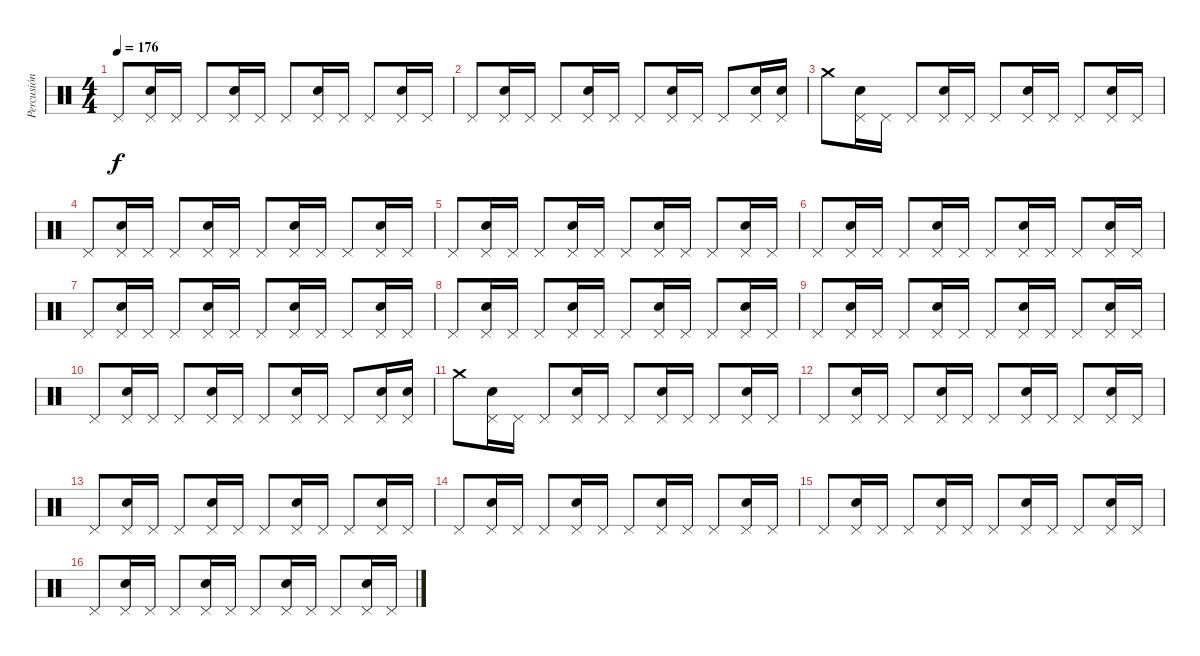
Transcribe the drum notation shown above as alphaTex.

\track ("Percusión" "Percusión") {instrument percussion}
\staff {score}
\articulation defaults
\ts (4 4)
\tempo 176
\clef neutral
\ks c "Pedal Hi-Hat (hit)".8{dy f}
("Pedal Hi-Hat (hit)" "Snare (hit) 2").16 "Pedal Hi-Hat (hit)".16 "Pedal Hi-Hat (hit)".8 ("Pedal Hi-Hat (hit)" "Snare (hit) 2").16 "Pedal Hi-Hat (hit)".16 "Pedal Hi-Hat (hit)".8 ("Pedal Hi-Hat (hit)" "Snare (hit) 2").16 "Pedal Hi-Hat (hit)".16 "Pedal Hi-Hat (hit)".8 ("Pedal Hi-Hat (hit)" "Snare (hit) 2").16 "Pedal Hi-Hat (hit)".16 |
"Pedal Hi-Hat (hit)".8 ("Pedal Hi-Hat (hit)" "Snare (hit) 2").16 "Pedal Hi-Hat (hit)".16 "Pedal Hi-Hat (hit)".8 ("Pedal Hi-Hat (hit)" "Snare (hit) 2").16 "Pedal Hi-Hat (hit)".16 "Pedal Hi-Hat (hit)".8 ("Pedal Hi-Hat (hit)" "Snare (hit) 2").16 "Pedal Hi-Hat (hit)".16 "Pedal Hi-Hat (hit)".8 ("Pedal Hi-Hat (hit)" "Snare (hit) 2").16 ("Pedal Hi-Hat (hit)" "Snare (hit) 2").16 |
"Crash medium (hit)".8 ("Pedal Hi-Hat (hit)" "Snare (hit) 2").16 "Pedal Hi-Hat (hit)".16 "Pedal Hi-Hat (hit)".8 ("Pedal Hi-Hat (hit)" "Snare (hit) 2").16 "Pedal Hi-Hat (hit)".16 "Pedal Hi-Hat (hit)".8 ("Pedal Hi-Hat (hit)" "Snare (hit) 2").16 "Pedal Hi-Hat (hit)".16 "Pedal Hi-Hat (hit)".8 ("Pedal Hi-Hat (hit)" "Snare (hit) 2").16 "Pedal Hi-Hat (hit)".16 |
"Pedal Hi-Hat (hit)".8 ("Pedal Hi-Hat (hit)" "Snare (hit) 2").16 "Pedal Hi-Hat (hit)".16 "Pedal Hi-Hat (hit)".8 ("Pedal Hi-Hat (hit)" "Snare (hit) 2").16 "Pedal Hi-Hat (hit)".16 "Pedal Hi-Hat (hit)".8 ("Pedal Hi-Hat (hit)" "Snare (hit) 2").16 "Pedal Hi-Hat (hit)".16 "Pedal Hi-Hat (hit)".8 ("Pedal Hi-Hat (hit)" "Snare (hit) 2").16 "Pedal Hi-Hat (hit)".16 |
"Pedal Hi-Hat (hit)".8 ("Pedal Hi-Hat (hit)" "Snare (hit) 2").16 "Pedal Hi-Hat (hit)".16 "Pedal Hi-Hat (hit)".8 ("Pedal Hi-Hat (hit)" "Snare (hit) 2").16 "Pedal Hi-Hat (hit)".16 "Pedal Hi-Hat (hit)".8 ("Pedal Hi-Hat (hit)" "Snare (hit) 2").16 "Pedal Hi-Hat (hit)".16 "Pedal Hi-Hat (hit)".8 ("Pedal Hi-Hat (hit)" "Snare (hit) 2").16 "Pedal Hi-Hat (hit)".16 |
"Pedal Hi-Hat (hit)".8 ("Pedal Hi-Hat (hit)" "Snare (hit) 2").16 "Pedal Hi-Hat (hit)".16 "Pedal Hi-Hat (hit)".8 ("Pedal Hi-Hat (hit)" "Snare (hit) 2").16 "Pedal Hi-Hat (hit)".16 "Pedal Hi-Hat (hit)".8 ("Pedal Hi-Hat (hit)" "Snare (hit) 2").16 "Pedal Hi-Hat (hit)".16 "Pedal Hi-Hat (hit)".8 ("Pedal Hi-Hat (hit)" "Snare (hit) 2").16 "Pedal Hi-Hat (hit)".16 |
"Pedal Hi-Hat (hit)".8 ("Pedal Hi-Hat (hit)" "Snare (hit) 2").16 "Pedal Hi-Hat (hit)".16 "Pedal Hi-Hat (hit)".8 ("Pedal Hi-Hat (hit)" "Snare (hit) 2").16 "Pedal Hi-Hat (hit)".16 "Pedal Hi-Hat (hit)".8 ("Pedal Hi-Hat (hit)" "Snare (hit) 2").16 "Pedal Hi-Hat (hit)".16 "Pedal Hi-Hat (hit)".8 ("Pedal Hi-Hat (hit)" "Snare (hit) 2").16 "Pedal Hi-Hat (hit)".16 |
"Pedal Hi-Hat (hit)".8 ("Pedal Hi-Hat (hit)" "Snare (hit) 2").16 "Pedal Hi-Hat (hit)".16 "Pedal Hi-Hat (hit)".8 ("Pedal Hi-Hat (hit)" "Snare (hit) 2").16 "Pedal Hi-Hat (hit)".16 "Pedal Hi-Hat (hit)".8 ("Pedal Hi-Hat (hit)" "Snare (hit) 2").16 "Pedal Hi-Hat (hit)".16 "Pedal Hi-Hat (hit)".8 ("Pedal Hi-Hat (hit)" "Snare (hit) 2").16 "Pedal Hi-Hat (hit)".16 |
"Pedal Hi-Hat (hit)".8 ("Pedal Hi-Hat (hit)" "Snare (hit) 2").16 "Pedal Hi-Hat (hit)".16 "Pedal Hi-Hat (hit)".8 ("Pedal Hi-Hat (hit)" "Snare (hit) 2").16 "Pedal Hi-Hat (hit)".16 "Pedal Hi-Hat (hit)".8 ("Pedal Hi-Hat (hit)" "Snare (hit) 2").16 "Pedal Hi-Hat (hit)".16 "Pedal Hi-Hat (hit)".8 ("Pedal Hi-Hat (hit)" "Snare (hit) 2").16 "Pedal Hi-Hat (hit)".16 |
"Pedal Hi-Hat (hit)".8 ("Pedal Hi-Hat (hit)" "Snare (hit) 2").16 "Pedal Hi-Hat (hit)".16 "Pedal Hi-Hat (hit)".8 ("Pedal Hi-Hat (hit)" "Snare (hit) 2").16 "Pedal Hi-Hat (hit)".16 "Pedal Hi-Hat (hit)".8 ("Pedal Hi-Hat (hit)" "Snare (hit) 2").16 "Pedal Hi-Hat (hit)".16 "Pedal Hi-Hat (hit)".8 ("Pedal Hi-Hat (hit)" "Snare (hit) 2").16 ("Pedal Hi-Hat (hit)" "Snare (hit) 2").16 |
"Crash medium (hit)".8 ("Pedal Hi-Hat (hit)" "Snare (hit) 2").16 "Pedal Hi-Hat (hit)".16 "Pedal Hi-Hat (hit)".8 ("Pedal Hi-Hat (hit)" "Snare (hit) 2").16 "Pedal Hi-Hat (hit)".16 "Pedal Hi-Hat (hit)".8 ("Pedal Hi-Hat (hit)" "Snare (hit) 2").16 "Pedal Hi-Hat (hit)".16 "Pedal Hi-Hat (hit)".8 ("Pedal Hi-Hat (hit)" "Snare (hit) 2").16 "Pedal Hi-Hat (hit)".16 |
"Pedal Hi-Hat (hit)".8 ("Pedal Hi-Hat (hit)" "Snare (hit) 2").16 "Pedal Hi-Hat (hit)".16 "Pedal Hi-Hat (hit)".8 ("Pedal Hi-Hat (hit)" "Snare (hit) 2").16 "Pedal Hi-Hat (hit)".16 "Pedal Hi-Hat (hit)".8 ("Pedal Hi-Hat (hit)" "Snare (hit) 2").16 "Pedal Hi-Hat (hit)".16 "Pedal Hi-Hat (hit)".8 ("Pedal Hi-Hat (hit)" "Snare (hit) 2").16 "Pedal Hi-Hat (hit)".16 |
"Pedal Hi-Hat (hit)".8 ("Pedal Hi-Hat (hit)" "Snare (hit) 2").16 "Pedal Hi-Hat (hit)".16 "Pedal Hi-Hat (hit)".8 ("Pedal Hi-Hat (hit)" "Snare (hit) 2").16 "Pedal Hi-Hat (hit)".16 "Pedal Hi-Hat (hit)".8 ("Pedal Hi-Hat (hit)" "Snare (hit) 2").16 "Pedal Hi-Hat (hit)".16 "Pedal Hi-Hat (hit)".8 ("Pedal Hi-Hat (hit)" "Snare (hit) 2").16 "Pedal Hi-Hat (hit)".16 |
"Pedal Hi-Hat (hit)".8 ("Pedal Hi-Hat (hit)" "Snare (hit) 2").16 "Pedal Hi-Hat (hit)".16 "Pedal Hi-Hat (hit)".8 ("Pedal Hi-Hat (hit)" "Snare (hit) 2").16 "Pedal Hi-Hat (hit)".16 "Pedal Hi-Hat (hit)".8 ("Pedal Hi-Hat (hit)" "Snare (hit) 2").16 "Pedal Hi-Hat (hit)".16 "Pedal Hi-Hat (hit)".8 ("Pedal Hi-Hat (hit)" "Snare (hit) 2").16 "Pedal Hi-Hat (hit)".16 |
"Pedal Hi-Hat (hit)".8 ("Pedal Hi-Hat (hit)" "Snare (hit) 2").16 "Pedal Hi-Hat (hit)".16 "Pedal Hi-Hat (hit)".8 ("Pedal Hi-Hat (hit)" "Snare (hit) 2").16 "Pedal Hi-Hat (hit)".16 "Pedal Hi-Hat (hit)".8 ("Pedal Hi-Hat (hit)" "Snare (hit) 2").16 "Pedal Hi-Hat (hit)".16 "Pedal Hi-Hat (hit)".8 ("Pedal Hi-Hat (hit)" "Snare (hit) 2").16 "Pedal Hi-Hat (hit)".16 |
"Pedal Hi-Hat (hit)".8 ("Pedal Hi-Hat (hit)" "Snare (hit) 2").16 "Pedal Hi-Hat (hit)".16 "Pedal Hi-Hat (hit)".8 ("Pedal Hi-Hat (hit)" "Snare (hit) 2").16 "Pedal Hi-Hat (hit)".16 "Pedal Hi-Hat (hit)".8 ("Pedal Hi-Hat (hit)" "Snare (hit) 2").16 "Pedal Hi-Hat (hit)".16 "Pedal Hi-Hat (hit)".8 ("Pedal Hi-Hat (hit)" "Snare (hit) 2").16 "Pedal Hi-Hat (hit)".16
